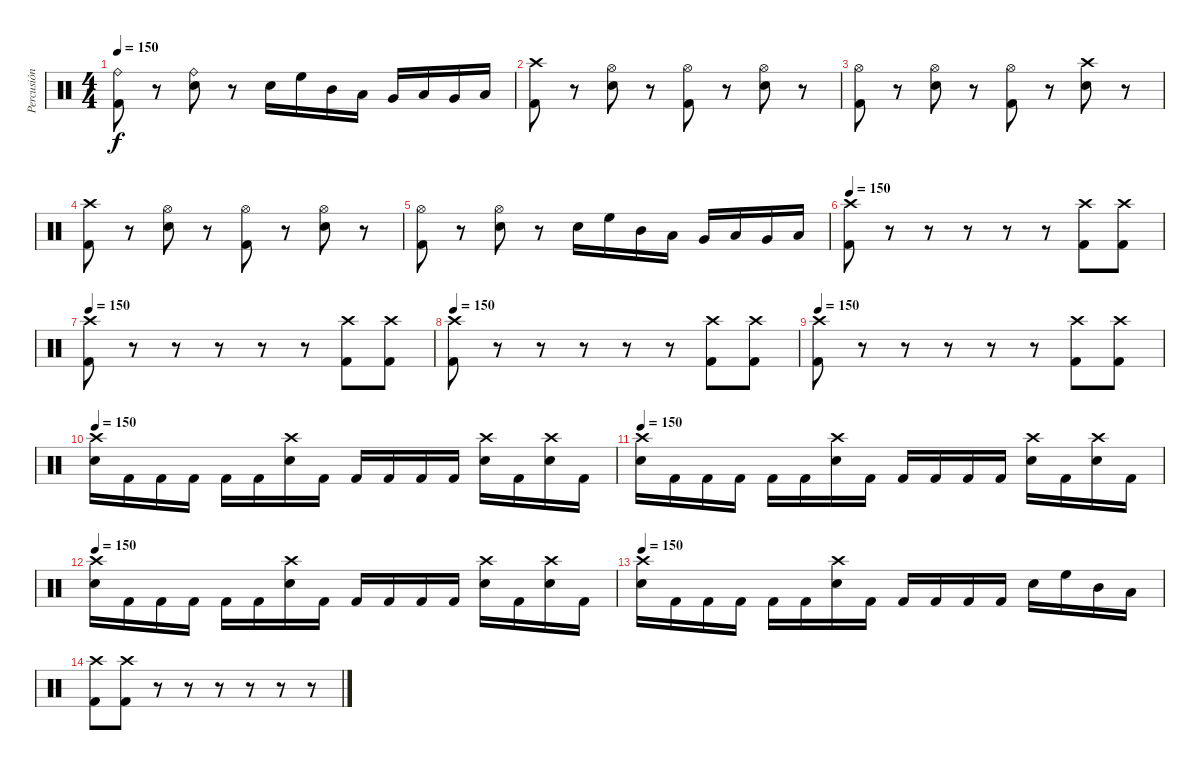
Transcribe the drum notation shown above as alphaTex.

\track ("Percusión" "Percusión") {instrument percussion}
\staff {score}
\articulation defaults
\ts (4 4)
\tempo 150
\clef neutral
\ks c
("Ride (bell)" "Kick (hit) 2").8{dy f} r.8 ("Ride (bell)" "Electric Snare (hit)").8 r.8 "Electric Snare (hit)".16 "High Floor Tom (hit)".16 "Mid Tom (hit)".16 "Low Tom (hit)".16 "Very Low Tom (hit)".16 "Low Tom (hit)".16 "Very Low Tom (hit)".16 "Low Floor Tom (hit)".16 |
("Crash high (hit)" "Kick (hit) 2").8 r.8 ("Hi-Hat (open)" "Electric Snare (hit)").8 r.8 ("Hi-Hat (open)" "Kick (hit) 2").8 r.8 ("Hi-Hat (open)" "Electric Snare (hit)").8 r.8 |
("Hi-Hat (open)" "Kick (hit) 2").8 r.8 ("Hi-Hat (open)" "Electric Snare (hit)").8 r.8 ("Hi-Hat (open)" "Kick (hit) 2").8 r.8 ("Crash high (hit)" "Electric Snare (hit)").8 r.8 |
("Crash high (hit)" "Kick (hit) 2").8 r.8 ("Hi-Hat (open)" "Electric Snare (hit)").8 r.8 ("Hi-Hat (open)" "Kick (hit) 2").8 r.8 ("Hi-Hat (open)" "Electric Snare (hit)").8 r.8 |
("Hi-Hat (open)" "Kick (hit) 2").8 r.8 ("Hi-Hat (open)" "Electric Snare (hit)").8 r.8 "Electric Snare (hit)".16 "High Floor Tom (hit)".16 "Mid Tom (hit)".16 "Low Tom (hit)".16 "Very Low Tom (hit)".16 "Low Tom (hit)".16 "Very Low Tom (hit)".16 "Low Floor Tom (hit)".16 |
\tempo 150
("Crash high (hit)" "Kick (hit) 2").8 r.8 r.8 r.8 r.8 r.8 ("Crash high (hit)" "Kick (hit) 2").8 ("Crash high (hit)" "Kick (hit) 2").8 |
\tempo 150
("Crash high (hit)" "Kick (hit) 2").8 r.8 r.8 r.8 r.8 r.8 ("Crash high (hit)" "Kick (hit) 2").8 ("Crash high (hit)" "Kick (hit) 2").8 |
\tempo 150
("Crash high (hit)" "Kick (hit) 2").8 r.8 r.8 r.8 r.8 r.8 ("Crash high (hit)" "Kick (hit) 2").8 ("Crash high (hit)" "Kick (hit) 2").8 |
\tempo 150
("Crash high (hit)" "Kick (hit) 2").8 r.8 r.8 r.8 r.8 r.8 ("Crash high (hit)" "Kick (hit) 2").8 ("Crash high (hit)" "Kick (hit) 2").8 |
\tempo 150
("Crash high (hit)" "Electric Snare (hit)").16 "Kick (hit) 2".16 "Kick (hit) 2".16 "Kick (hit) 2".16 "Kick (hit) 2".16 "Kick (hit) 2".16 ("Crash high (hit)" "Electric Snare (hit)").16 "Kick (hit) 2".16 "Kick (hit) 2".16 "Kick (hit) 2".16 "Kick (hit) 2".16 "Kick (hit) 2".16 ("Crash high (hit)" "Electric Snare (hit)").16 "Kick (hit) 2".16 ("Crash high (hit)" "Electric Snare (hit)").16 "Kick (hit) 2".16 |
\tempo 150
("Crash high (hit)" "Electric Snare (hit)").16 "Kick (hit) 2".16 "Kick (hit) 2".16 "Kick (hit) 2".16 "Kick (hit) 2".16 "Kick (hit) 2".16 ("Crash high (hit)" "Electric Snare (hit)").16 "Kick (hit) 2".16 "Kick (hit) 2".16 "Kick (hit) 2".16 "Kick (hit) 2".16 "Kick (hit) 2".16 ("Crash high (hit)" "Electric Snare (hit)").16 "Kick (hit) 2".16 ("Crash high (hit)" "Electric Snare (hit)").16 "Kick (hit) 2".16 |
\tempo 150
("Crash high (hit)" "Electric Snare (hit)").16 "Kick (hit) 2".16 "Kick (hit) 2".16 "Kick (hit) 2".16 "Kick (hit) 2".16 "Kick (hit) 2".16 ("Crash high (hit)" "Electric Snare (hit)").16 "Kick (hit) 2".16 "Kick (hit) 2".16 "Kick (hit) 2".16 "Kick (hit) 2".16 "Kick (hit) 2".16 ("Crash high (hit)" "Electric Snare (hit)").16 "Kick (hit) 2".16 ("Crash high (hit)" "Electric Snare (hit)").16 "Kick (hit) 2".16 |
\tempo 150
("Crash high (hit)" "Electric Snare (hit)").16 "Kick (hit) 2".16 "Kick (hit) 2".16 "Kick (hit) 2".16 "Kick (hit) 2".16 "Kick (hit) 2".16 ("Crash high (hit)" "Electric Snare (hit)").16 "Kick (hit) 2".16 "Kick (hit) 2".16 "Kick (hit) 2".16 "Kick (hit) 2".16 "Kick (hit) 2".16 "Electric Snare (hit)".16 "High Floor Tom (hit)".16 "Mid Tom (hit)".16 "Low Tom (hit)".16 |
("Crash high (hit)" "Kick (hit) 2").8 ("Crash high (hit)" "Kick (hit) 2").8 r.8 r.8 r.8 r.8 r.8 r.8
